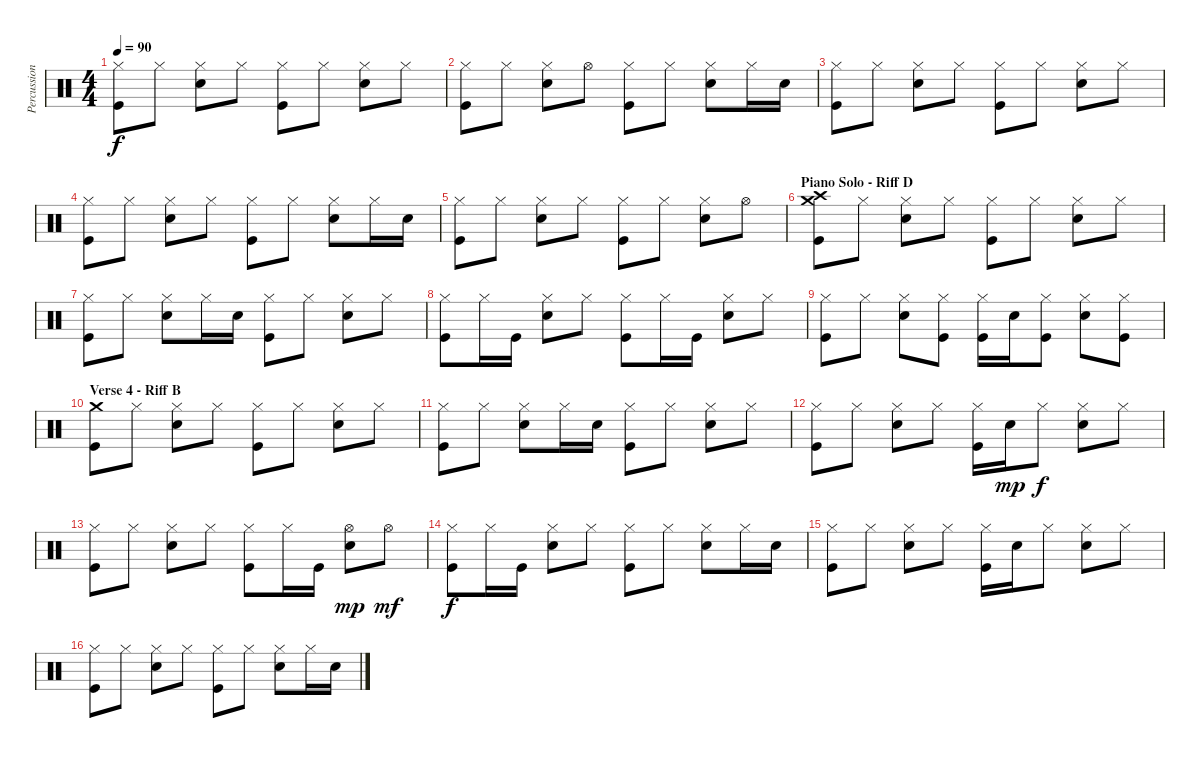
\track ("Percussion (DK 0)" "Percussion") {instrument percussion}
\staff {score}
\articulation defaults
\ts (4 4)
\tempo 90
\clef neutral
\ks c
("Hi-Hat (closed)" "Kick (hit)").8{dy f} "Hi-Hat (closed)".8 ("Hi-Hat (closed)" "Electric Snare (hit)").8 "Hi-Hat (closed)".8 ("Hi-Hat (closed)" "Kick (hit)").8 "Hi-Hat (closed)".8 ("Hi-Hat (closed)" "Electric Snare (hit)").8 "Hi-Hat (closed)".8 |
("Hi-Hat (closed)" "Kick (hit)").8 "Hi-Hat (closed)".8 ("Hi-Hat (closed)" "Electric Snare (hit)").8 "Hi-Hat (open)".8 ("Hi-Hat (closed)" "Kick (hit)").8 "Hi-Hat (closed)".8 ("Hi-Hat (closed)" "Electric Snare (hit)").8 "Hi-Hat (closed)".16 "Electric Snare (hit)".16 |
("Hi-Hat (closed)" "Kick (hit)").8 "Hi-Hat (closed)".8 ("Hi-Hat (closed)" "Electric Snare (hit)").8 "Hi-Hat (closed)".8 ("Hi-Hat (closed)" "Kick (hit)").8 "Hi-Hat (closed)".8 ("Hi-Hat (closed)" "Electric Snare (hit)").8 "Hi-Hat (closed)".8 |
("Hi-Hat (closed)" "Kick (hit)").8 "Hi-Hat (closed)".8 ("Hi-Hat (closed)" "Electric Snare (hit)").8 "Hi-Hat (closed)".8 ("Hi-Hat (closed)" "Kick (hit)").8 "Hi-Hat (closed)".8 ("Hi-Hat (closed)" "Electric Snare (hit)").8 "Hi-Hat (closed)".16 "Electric Snare (hit)".16 |
("Hi-Hat (closed)" "Kick (hit)").8 "Hi-Hat (closed)".8 ("Hi-Hat (closed)" "Electric Snare (hit)").8 "Hi-Hat (closed)".8 ("Hi-Hat (closed)" "Kick (hit)").8 "Hi-Hat (closed)".8 ("Hi-Hat (closed)" "Electric Snare (hit)").8 "Hi-Hat (open)".8 |
\section ("" "Piano Solo - Riff D")
("Crash medium (hit)" "Crash high (hit)" "Kick (hit)").8 "Hi-Hat (closed)".8 ("Hi-Hat (closed)" "Electric Snare (hit)").8 "Hi-Hat (closed)".8 ("Hi-Hat (closed)" "Kick (hit)").8 "Hi-Hat (closed)".8 ("Hi-Hat (closed)" "Electric Snare (hit)").8 "Hi-Hat (closed)".8 |
("Hi-Hat (closed)" "Kick (hit)").8 "Hi-Hat (closed)".8 ("Hi-Hat (closed)" "Electric Snare (hit)").8 "Hi-Hat (closed)".16 "Electric Snare (hit)".16 ("Hi-Hat (closed)" "Kick (hit)").8 "Hi-Hat (closed)".8 ("Hi-Hat (closed)" "Electric Snare (hit)").8 "Hi-Hat (closed)".8 |
("Hi-Hat (closed)" "Kick (hit)").8 "Hi-Hat (closed)".16 "Kick (hit)".16 ("Hi-Hat (closed)" "Electric Snare (hit)").8 "Hi-Hat (closed)".8 ("Hi-Hat (closed)" "Kick (hit)").8 "Hi-Hat (closed)".16 "Kick (hit)".16 ("Hi-Hat (closed)" "Electric Snare (hit)").8 "Hi-Hat (closed)".8 |
("Hi-Hat (closed)" "Kick (hit)").8 "Hi-Hat (closed)".8 ("Hi-Hat (closed)" "Electric Snare (hit)").8 ("Hi-Hat (closed)" "Kick (hit)").8 ("Hi-Hat (closed)" "Kick (hit)").16 "Electric Snare (hit)".16 ("Hi-Hat (closed)" "Kick (hit)").8 ("Hi-Hat (closed)" "Electric Snare (hit)").8 ("Hi-Hat (closed)" "Kick (hit)").8 |
\section ("" "Verse 4 - Riff B")
("Crash medium (hit)" "Kick (hit)").8 "Hi-Hat (closed)".8 ("Hi-Hat (closed)" "Electric Snare (hit)").8 "Hi-Hat (closed)".8 ("Hi-Hat (closed)" "Kick (hit)").8 "Hi-Hat (closed)".8 ("Hi-Hat (closed)" "Electric Snare (hit)").8 "Hi-Hat (closed)".8 |
("Hi-Hat (closed)" "Kick (hit)").8 "Hi-Hat (closed)".8 ("Hi-Hat (closed)" "Electric Snare (hit)").8 "Hi-Hat (closed)".16 "Electric Snare (hit)".16 ("Hi-Hat (closed)" "Kick (hit)").8 "Hi-Hat (closed)".8 ("Hi-Hat (closed)" "Electric Snare (hit)").8 "Hi-Hat (closed)".8 |
("Hi-Hat (closed)" "Kick (hit)").8 "Hi-Hat (closed)".8 ("Hi-Hat (closed)" "Electric Snare (hit)").8 "Hi-Hat (closed)".8 ("Hi-Hat (closed)" "Kick (hit)").16 "Electric Snare (hit)".16{dy mp} "Hi-Hat (closed)".8{dy f} ("Hi-Hat (closed)" "Electric Snare (hit)").8 "Hi-Hat (closed)".8 |
("Hi-Hat (closed)" "Kick (hit)").8 "Hi-Hat (closed)".8 ("Hi-Hat (closed)" "Electric Snare (hit)").8 "Hi-Hat (closed)".8 ("Hi-Hat (closed)" "Kick (hit)").8 "Hi-Hat (closed)".16 "Kick (hit)".16 ("Hi-Hat (open)" "Electric Snare (hit)").8{dy mp} "Hi-Hat (open)".8{dy mf} |
("Hi-Hat (closed)" "Kick (hit)").8{dy f} "Hi-Hat (closed)".16 "Kick (hit)".16 ("Hi-Hat (closed)" "Electric Snare (hit)").8 "Hi-Hat (closed)".8 ("Hi-Hat (closed)" "Kick (hit)").8 "Hi-Hat (closed)".8 ("Hi-Hat (closed)" "Electric Snare (hit)").8 "Hi-Hat (closed)".16 "Electric Snare (hit)".16 |
("Hi-Hat (closed)" "Kick (hit)").8 "Hi-Hat (closed)".8 ("Hi-Hat (closed)" "Electric Snare (hit)").8 "Hi-Hat (closed)".8 ("Hi-Hat (closed)" "Kick (hit)").16 "Electric Snare (hit)".16 "Hi-Hat (closed)".8 ("Hi-Hat (closed)" "Electric Snare (hit)").8 "Hi-Hat (closed)".8 |
("Hi-Hat (closed)" "Kick (hit)").8 "Hi-Hat (closed)".8 ("Hi-Hat (closed)" "Electric Snare (hit)").8 "Hi-Hat (closed)".8 ("Hi-Hat (closed)" "Kick (hit)").8 "Hi-Hat (closed)".8 ("Hi-Hat (closed)" "Electric Snare (hit)").8 "Hi-Hat (closed)".16 "Electric Snare (hit)".16
